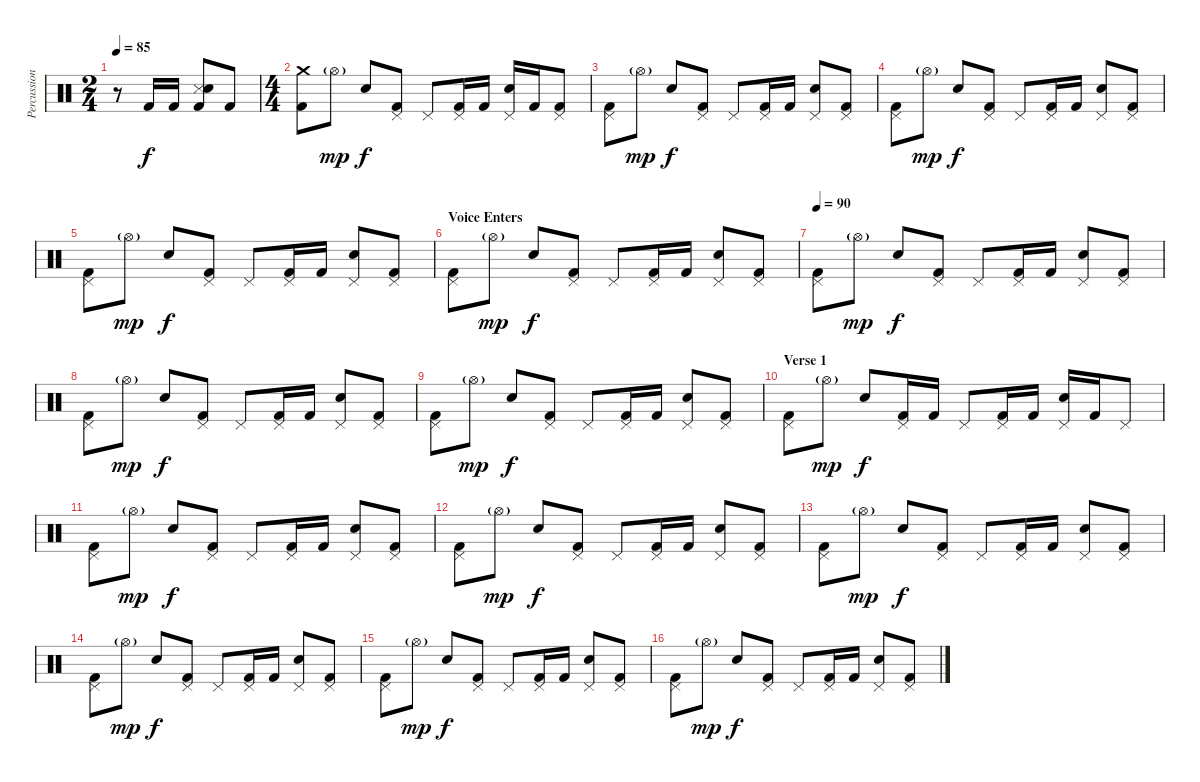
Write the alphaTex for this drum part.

\track ("Percussion" "Percussion") {instrument percussion}
\staff {score}
\articulation defaults
\ts (2 4)
\tempo 85
\clef neutral
\ks c
r.8{dy f} "Kick (hit) 2".16 "Kick (hit) 2".16 ("Snare (side stick) 3" "Electric Snare (hit)" "Kick (hit) 2").8 "Kick (hit) 2".8 |
\ts (4 4)
("Crash medium (hit)" "Kick (hit) 2").8 "Hi-Hat (open)"{g}.8{dy mp} "Electric Snare (hit)".8{dy f} ("Pedal Hi-Hat (hit)" "Kick (hit) 2").8 "Pedal Hi-Hat (hit)".8 ("Pedal Hi-Hat (hit)" "Kick (hit) 2").16 "Kick (hit) 2".16 ("Pedal Hi-Hat (hit)" "Electric Snare (hit)").16 "Kick (hit) 2".16 ("Pedal Hi-Hat (hit)" "Kick (hit) 2").8 |
("Pedal Hi-Hat (hit)" "Kick (hit) 2").8 "Hi-Hat (open)"{g}.8{dy mp} "Electric Snare (hit)".8{dy f} ("Pedal Hi-Hat (hit)" "Kick (hit) 2").8 "Pedal Hi-Hat (hit)".8 ("Pedal Hi-Hat (hit)" "Kick (hit) 2").16 "Kick (hit) 2".16 ("Pedal Hi-Hat (hit)" "Electric Snare (hit)").8 ("Pedal Hi-Hat (hit)" "Kick (hit) 2").8 |
("Pedal Hi-Hat (hit)" "Kick (hit) 2").8 "Hi-Hat (open)"{g}.8{dy mp} "Electric Snare (hit)".8{dy f} ("Pedal Hi-Hat (hit)" "Kick (hit) 2").8 "Pedal Hi-Hat (hit)".8 ("Pedal Hi-Hat (hit)" "Kick (hit) 2").16 "Kick (hit) 2".16 ("Pedal Hi-Hat (hit)" "Electric Snare (hit)").8 ("Pedal Hi-Hat (hit)" "Kick (hit) 2").8 |
("Pedal Hi-Hat (hit)" "Kick (hit) 2").8 "Hi-Hat (open)"{g}.8{dy mp} "Electric Snare (hit)".8{dy f} ("Pedal Hi-Hat (hit)" "Kick (hit) 2").8 "Pedal Hi-Hat (hit)".8 ("Pedal Hi-Hat (hit)" "Kick (hit) 2").16 "Kick (hit) 2".16 ("Pedal Hi-Hat (hit)" "Electric Snare (hit)").8 ("Pedal Hi-Hat (hit)" "Kick (hit) 2").8 |
\section ("" "Voice Enters")
("Pedal Hi-Hat (hit)" "Kick (hit) 2").8 "Hi-Hat (open)"{g}.8{dy mp} "Electric Snare (hit)".8{dy f} ("Pedal Hi-Hat (hit)" "Kick (hit) 2").8 "Pedal Hi-Hat (hit)".8 ("Pedal Hi-Hat (hit)" "Kick (hit) 2").16 "Kick (hit) 2".16 ("Pedal Hi-Hat (hit)" "Electric Snare (hit)").8 ("Pedal Hi-Hat (hit)" "Kick (hit) 2").8 |
\tempo 90
("Pedal Hi-Hat (hit)" "Kick (hit) 2").8 "Hi-Hat (open)"{g}.8{dy mp} "Electric Snare (hit)".8{dy f} ("Pedal Hi-Hat (hit)" "Kick (hit) 2").8 "Pedal Hi-Hat (hit)".8 ("Pedal Hi-Hat (hit)" "Kick (hit) 2").16 "Kick (hit) 2".16 ("Pedal Hi-Hat (hit)" "Electric Snare (hit)").8 ("Pedal Hi-Hat (hit)" "Kick (hit) 2").8 |
("Pedal Hi-Hat (hit)" "Kick (hit) 2").8 "Hi-Hat (open)"{g}.8{dy mp} "Electric Snare (hit)".8{dy f} ("Pedal Hi-Hat (hit)" "Kick (hit) 2").8 "Pedal Hi-Hat (hit)".8 ("Pedal Hi-Hat (hit)" "Kick (hit) 2").16 "Kick (hit) 2".16 ("Pedal Hi-Hat (hit)" "Electric Snare (hit)").8 ("Pedal Hi-Hat (hit)" "Kick (hit) 2").8 |
("Pedal Hi-Hat (hit)" "Kick (hit) 2").8 "Hi-Hat (open)"{g}.8{dy mp} "Electric Snare (hit)".8{dy f} ("Pedal Hi-Hat (hit)" "Kick (hit) 2").8 "Pedal Hi-Hat (hit)".8 ("Pedal Hi-Hat (hit)" "Kick (hit) 2").16 "Kick (hit) 2".16 ("Pedal Hi-Hat (hit)" "Electric Snare (hit)").8 ("Pedal Hi-Hat (hit)" "Kick (hit) 2").8 |
\section ("" "Verse 1")
("Pedal Hi-Hat (hit)" "Kick (hit) 2").8 "Hi-Hat (open)"{g}.8{dy mp} "Electric Snare (hit)".8{dy f} ("Pedal Hi-Hat (hit)" "Kick (hit) 2").16 "Kick (hit) 2".16 "Pedal Hi-Hat (hit)".8 ("Pedal Hi-Hat (hit)" "Kick (hit) 2").16 "Kick (hit) 2".16 ("Pedal Hi-Hat (hit)" "Electric Snare (hit)").16 "Kick (hit) 2".16 "Pedal Hi-Hat (hit)".8 |
("Pedal Hi-Hat (hit)" "Kick (hit) 2").8 "Hi-Hat (open)"{g}.8{dy mp} "Electric Snare (hit)".8{dy f} ("Pedal Hi-Hat (hit)" "Kick (hit) 2").8 "Pedal Hi-Hat (hit)".8 ("Pedal Hi-Hat (hit)" "Kick (hit) 2").16 "Kick (hit) 2".16 ("Pedal Hi-Hat (hit)" "Electric Snare (hit)").8 ("Pedal Hi-Hat (hit)" "Kick (hit) 2").8 |
("Pedal Hi-Hat (hit)" "Kick (hit) 2").8 "Hi-Hat (open)"{g}.8{dy mp} "Electric Snare (hit)".8{dy f} ("Pedal Hi-Hat (hit)" "Kick (hit) 2").8 "Pedal Hi-Hat (hit)".8 ("Pedal Hi-Hat (hit)" "Kick (hit) 2").16 "Kick (hit) 2".16 ("Pedal Hi-Hat (hit)" "Electric Snare (hit)").8 ("Pedal Hi-Hat (hit)" "Kick (hit) 2").8 |
("Pedal Hi-Hat (hit)" "Kick (hit) 2").8 "Hi-Hat (open)"{g}.8{dy mp} "Electric Snare (hit)".8{dy f} ("Pedal Hi-Hat (hit)" "Kick (hit) 2").8 "Pedal Hi-Hat (hit)".8 ("Pedal Hi-Hat (hit)" "Kick (hit) 2").16 "Kick (hit) 2".16 ("Pedal Hi-Hat (hit)" "Electric Snare (hit)").8 ("Pedal Hi-Hat (hit)" "Kick (hit) 2").8 |
("Pedal Hi-Hat (hit)" "Kick (hit) 2").8 "Hi-Hat (open)"{g}.8{dy mp} "Electric Snare (hit)".8{dy f} ("Pedal Hi-Hat (hit)" "Kick (hit) 2").8 "Pedal Hi-Hat (hit)".8 ("Pedal Hi-Hat (hit)" "Kick (hit) 2").16 "Kick (hit) 2".16 ("Pedal Hi-Hat (hit)" "Electric Snare (hit)").8 ("Pedal Hi-Hat (hit)" "Kick (hit) 2").8 |
("Pedal Hi-Hat (hit)" "Kick (hit) 2").8 "Hi-Hat (open)"{g}.8{dy mp} "Electric Snare (hit)".8{dy f} ("Pedal Hi-Hat (hit)" "Kick (hit) 2").8 "Pedal Hi-Hat (hit)".8 ("Pedal Hi-Hat (hit)" "Kick (hit) 2").16 "Kick (hit) 2".16 ("Pedal Hi-Hat (hit)" "Electric Snare (hit)").8 ("Pedal Hi-Hat (hit)" "Kick (hit) 2").8 |
("Pedal Hi-Hat (hit)" "Kick (hit) 2").8 "Hi-Hat (open)"{g}.8{dy mp} "Electric Snare (hit)".8{dy f} ("Pedal Hi-Hat (hit)" "Kick (hit) 2").8 "Pedal Hi-Hat (hit)".8 ("Pedal Hi-Hat (hit)" "Kick (hit) 2").16 "Kick (hit) 2".16 ("Pedal Hi-Hat (hit)" "Electric Snare (hit)").8 ("Pedal Hi-Hat (hit)" "Kick (hit) 2").8
